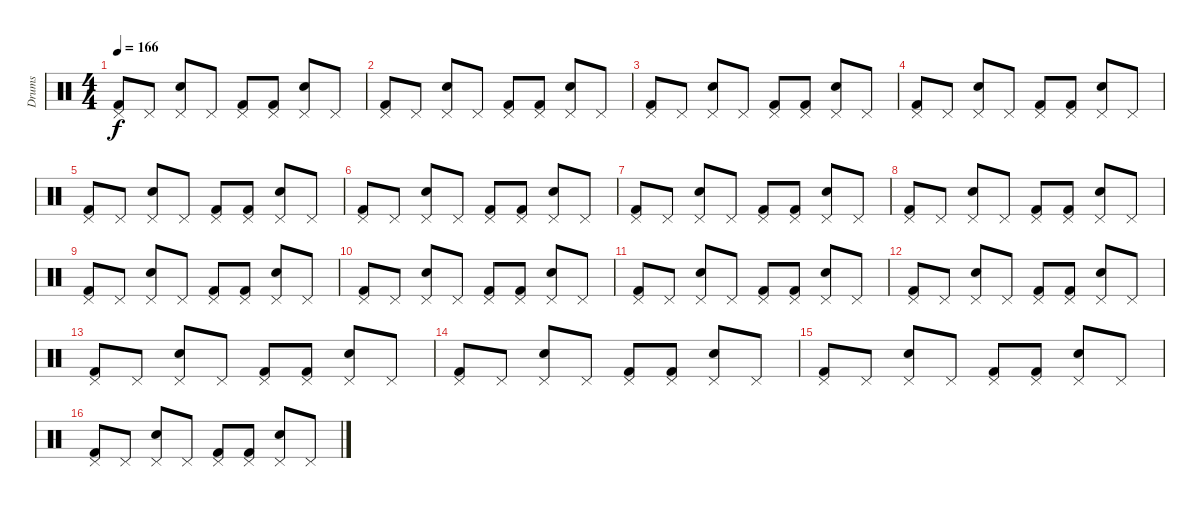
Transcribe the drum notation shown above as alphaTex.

\track ("Drums" "Drums") {instrument percussion}
\staff {score}
\articulation defaults
\ts (4 4)
\tempo 166
\clef neutral
\ks c
("Pedal Hi-Hat (hit)" "Kick (hit) 2").8{dy f} "Pedal Hi-Hat (hit)".8 ("Electric Snare (hit)" "Pedal Hi-Hat (hit)").8 "Pedal Hi-Hat (hit)".8 ("Pedal Hi-Hat (hit)" "Kick (hit) 2").8 ("Pedal Hi-Hat (hit)" "Kick (hit) 2").8 ("Electric Snare (hit)" "Pedal Hi-Hat (hit)").8 "Pedal Hi-Hat (hit)".8 |
("Pedal Hi-Hat (hit)" "Kick (hit) 2").8 "Pedal Hi-Hat (hit)".8 ("Electric Snare (hit)" "Pedal Hi-Hat (hit)").8 "Pedal Hi-Hat (hit)".8 ("Pedal Hi-Hat (hit)" "Kick (hit) 2").8 ("Pedal Hi-Hat (hit)" "Kick (hit) 2").8 ("Electric Snare (hit)" "Pedal Hi-Hat (hit)").8 "Pedal Hi-Hat (hit)".8 |
("Pedal Hi-Hat (hit)" "Kick (hit) 2").8 "Pedal Hi-Hat (hit)".8 ("Electric Snare (hit)" "Pedal Hi-Hat (hit)").8 "Pedal Hi-Hat (hit)".8 ("Pedal Hi-Hat (hit)" "Kick (hit) 2").8 ("Pedal Hi-Hat (hit)" "Kick (hit) 2").8 ("Electric Snare (hit)" "Pedal Hi-Hat (hit)").8 "Pedal Hi-Hat (hit)".8 |
("Pedal Hi-Hat (hit)" "Kick (hit) 2").8 "Pedal Hi-Hat (hit)".8 ("Electric Snare (hit)" "Pedal Hi-Hat (hit)").8 "Pedal Hi-Hat (hit)".8 ("Pedal Hi-Hat (hit)" "Kick (hit) 2").8 ("Pedal Hi-Hat (hit)" "Kick (hit) 2").8 ("Electric Snare (hit)" "Pedal Hi-Hat (hit)").8 "Pedal Hi-Hat (hit)".8 |
("Pedal Hi-Hat (hit)" "Kick (hit) 2").8 "Pedal Hi-Hat (hit)".8 ("Electric Snare (hit)" "Pedal Hi-Hat (hit)").8 "Pedal Hi-Hat (hit)".8 ("Pedal Hi-Hat (hit)" "Kick (hit) 2").8 ("Pedal Hi-Hat (hit)" "Kick (hit) 2").8 ("Electric Snare (hit)" "Pedal Hi-Hat (hit)").8 "Pedal Hi-Hat (hit)".8 |
("Pedal Hi-Hat (hit)" "Kick (hit) 2").8 "Pedal Hi-Hat (hit)".8 ("Electric Snare (hit)" "Pedal Hi-Hat (hit)").8 "Pedal Hi-Hat (hit)".8 ("Pedal Hi-Hat (hit)" "Kick (hit) 2").8 ("Pedal Hi-Hat (hit)" "Kick (hit) 2").8 ("Electric Snare (hit)" "Pedal Hi-Hat (hit)").8 "Pedal Hi-Hat (hit)".8 |
("Pedal Hi-Hat (hit)" "Kick (hit) 2").8 "Pedal Hi-Hat (hit)".8 ("Electric Snare (hit)" "Pedal Hi-Hat (hit)").8 "Pedal Hi-Hat (hit)".8 ("Pedal Hi-Hat (hit)" "Kick (hit) 2").8 ("Pedal Hi-Hat (hit)" "Kick (hit) 2").8 ("Electric Snare (hit)" "Pedal Hi-Hat (hit)").8 "Pedal Hi-Hat (hit)".8 |
("Pedal Hi-Hat (hit)" "Kick (hit) 2").8 "Pedal Hi-Hat (hit)".8 ("Electric Snare (hit)" "Pedal Hi-Hat (hit)").8 "Pedal Hi-Hat (hit)".8 ("Pedal Hi-Hat (hit)" "Kick (hit) 2").8 ("Pedal Hi-Hat (hit)" "Kick (hit) 2").8 ("Electric Snare (hit)" "Pedal Hi-Hat (hit)").8 "Pedal Hi-Hat (hit)".8 |
("Pedal Hi-Hat (hit)" "Kick (hit) 2").8 "Pedal Hi-Hat (hit)".8 ("Electric Snare (hit)" "Pedal Hi-Hat (hit)").8 "Pedal Hi-Hat (hit)".8 ("Pedal Hi-Hat (hit)" "Kick (hit) 2").8 ("Pedal Hi-Hat (hit)" "Kick (hit) 2").8 ("Electric Snare (hit)" "Pedal Hi-Hat (hit)").8 "Pedal Hi-Hat (hit)".8 |
("Pedal Hi-Hat (hit)" "Kick (hit) 2").8 "Pedal Hi-Hat (hit)".8 ("Electric Snare (hit)" "Pedal Hi-Hat (hit)").8 "Pedal Hi-Hat (hit)".8 ("Pedal Hi-Hat (hit)" "Kick (hit) 2").8 ("Pedal Hi-Hat (hit)" "Kick (hit) 2").8 ("Electric Snare (hit)" "Pedal Hi-Hat (hit)").8 "Pedal Hi-Hat (hit)".8 |
("Pedal Hi-Hat (hit)" "Kick (hit) 2").8 "Pedal Hi-Hat (hit)".8 ("Electric Snare (hit)" "Pedal Hi-Hat (hit)").8 "Pedal Hi-Hat (hit)".8 ("Pedal Hi-Hat (hit)" "Kick (hit) 2").8 ("Pedal Hi-Hat (hit)" "Kick (hit) 2").8 ("Electric Snare (hit)" "Pedal Hi-Hat (hit)").8 "Pedal Hi-Hat (hit)".8 |
("Pedal Hi-Hat (hit)" "Kick (hit) 2").8 "Pedal Hi-Hat (hit)".8 ("Electric Snare (hit)" "Pedal Hi-Hat (hit)").8 "Pedal Hi-Hat (hit)".8 ("Pedal Hi-Hat (hit)" "Kick (hit) 2").8 ("Pedal Hi-Hat (hit)" "Kick (hit) 2").8 ("Electric Snare (hit)" "Pedal Hi-Hat (hit)").8 "Pedal Hi-Hat (hit)".8 |
("Pedal Hi-Hat (hit)" "Kick (hit) 2").8 "Pedal Hi-Hat (hit)".8 ("Electric Snare (hit)" "Pedal Hi-Hat (hit)").8 "Pedal Hi-Hat (hit)".8 ("Pedal Hi-Hat (hit)" "Kick (hit) 2").8 ("Pedal Hi-Hat (hit)" "Kick (hit) 2").8 ("Electric Snare (hit)" "Pedal Hi-Hat (hit)").8 "Pedal Hi-Hat (hit)".8 |
("Pedal Hi-Hat (hit)" "Kick (hit) 2").8 "Pedal Hi-Hat (hit)".8 ("Electric Snare (hit)" "Pedal Hi-Hat (hit)").8 "Pedal Hi-Hat (hit)".8 ("Pedal Hi-Hat (hit)" "Kick (hit) 2").8 ("Pedal Hi-Hat (hit)" "Kick (hit) 2").8 ("Electric Snare (hit)" "Pedal Hi-Hat (hit)").8 "Pedal Hi-Hat (hit)".8 |
("Pedal Hi-Hat (hit)" "Kick (hit) 2").8 "Pedal Hi-Hat (hit)".8 ("Electric Snare (hit)" "Pedal Hi-Hat (hit)").8 "Pedal Hi-Hat (hit)".8 ("Pedal Hi-Hat (hit)" "Kick (hit) 2").8 ("Pedal Hi-Hat (hit)" "Kick (hit) 2").8 ("Electric Snare (hit)" "Pedal Hi-Hat (hit)").8 "Pedal Hi-Hat (hit)".8 |
("Pedal Hi-Hat (hit)" "Kick (hit) 2").8 "Pedal Hi-Hat (hit)".8 ("Electric Snare (hit)" "Pedal Hi-Hat (hit)").8 "Pedal Hi-Hat (hit)".8 ("Pedal Hi-Hat (hit)" "Kick (hit) 2").8 ("Pedal Hi-Hat (hit)" "Kick (hit) 2").8 ("Electric Snare (hit)" "Pedal Hi-Hat (hit)").8 "Pedal Hi-Hat (hit)".8
